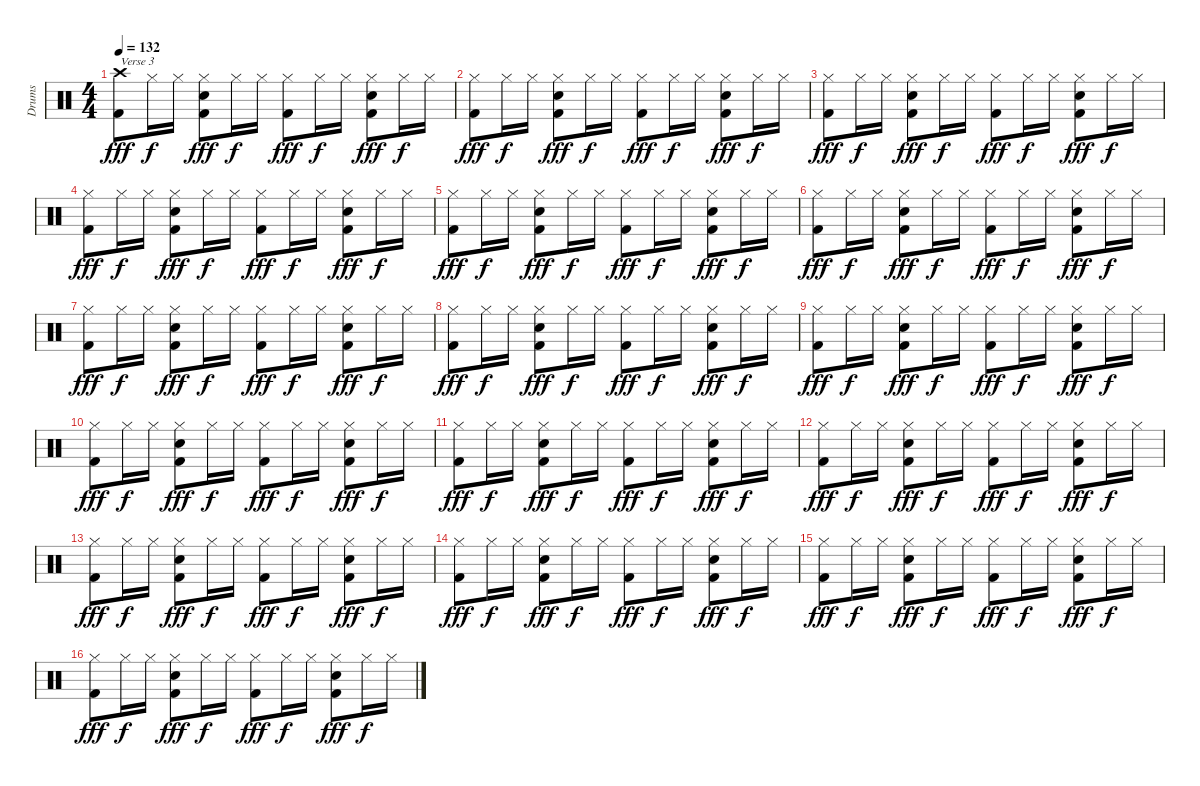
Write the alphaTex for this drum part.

\track ("Drums" "Drums") {instrument percussion}
\staff {score}
\articulation defaults
\ts (4 4)
\tempo 132
\clef neutral
\ks c
("Crash high (hit)" "Kick (hit) 2").8{txt "Verse 3" dy fff} "Hi-Hat (closed)".16{dy f} "Hi-Hat (closed)".16 ("Hi-Hat (closed)" "Snare (hit) 2" "Kick (hit) 2").8{dy fff} "Hi-Hat (closed)".16{dy f} "Hi-Hat (closed)".16 ("Hi-Hat (closed)" "Kick (hit) 2").8{dy fff} "Hi-Hat (closed)".16{dy f} "Hi-Hat (closed)".16 ("Hi-Hat (closed)" "Snare (hit) 2" "Kick (hit) 2").8{dy fff} "Hi-Hat (closed)".16{dy f} "Hi-Hat (closed)".16 |
("Hi-Hat (closed)" "Kick (hit) 2").8{dy fff} "Hi-Hat (closed)".16{dy f} "Hi-Hat (closed)".16 ("Hi-Hat (closed)" "Snare (hit) 2" "Kick (hit) 2").8{dy fff} "Hi-Hat (closed)".16{dy f} "Hi-Hat (closed)".16 ("Hi-Hat (closed)" "Kick (hit) 2").8{dy fff} "Hi-Hat (closed)".16{dy f} "Hi-Hat (closed)".16 ("Hi-Hat (closed)" "Snare (hit) 2" "Kick (hit) 2").8{dy fff} "Hi-Hat (closed)".16{dy f} "Hi-Hat (closed)".16 |
("Hi-Hat (closed)" "Kick (hit) 2").8{dy fff} "Hi-Hat (closed)".16{dy f} "Hi-Hat (closed)".16 ("Hi-Hat (closed)" "Snare (hit) 2" "Kick (hit) 2").8{dy fff} "Hi-Hat (closed)".16{dy f} "Hi-Hat (closed)".16 ("Hi-Hat (closed)" "Kick (hit) 2").8{dy fff} "Hi-Hat (closed)".16{dy f} "Hi-Hat (closed)".16 ("Hi-Hat (closed)" "Snare (hit) 2" "Kick (hit) 2").8{dy fff} "Hi-Hat (closed)".16{dy f} "Hi-Hat (closed)".16 |
("Hi-Hat (closed)" "Kick (hit) 2").8{dy fff} "Hi-Hat (closed)".16{dy f} "Hi-Hat (closed)".16 ("Hi-Hat (closed)" "Snare (hit) 2" "Kick (hit) 2").8{dy fff} "Hi-Hat (closed)".16{dy f} "Hi-Hat (closed)".16 ("Hi-Hat (closed)" "Kick (hit) 2").8{dy fff} "Hi-Hat (closed)".16{dy f} "Hi-Hat (closed)".16 ("Hi-Hat (closed)" "Snare (hit) 2" "Kick (hit) 2").8{dy fff} "Hi-Hat (closed)".16{dy f} "Hi-Hat (closed)".16 |
("Hi-Hat (closed)" "Kick (hit) 2").8{dy fff} "Hi-Hat (closed)".16{dy f} "Hi-Hat (closed)".16 ("Hi-Hat (closed)" "Snare (hit) 2" "Kick (hit) 2").8{dy fff} "Hi-Hat (closed)".16{dy f} "Hi-Hat (closed)".16 ("Hi-Hat (closed)" "Kick (hit) 2").8{dy fff} "Hi-Hat (closed)".16{dy f} "Hi-Hat (closed)".16 ("Hi-Hat (closed)" "Snare (hit) 2" "Kick (hit) 2").8{dy fff} "Hi-Hat (closed)".16{dy f} "Hi-Hat (closed)".16 |
("Hi-Hat (closed)" "Kick (hit) 2").8{dy fff} "Hi-Hat (closed)".16{dy f} "Hi-Hat (closed)".16 ("Hi-Hat (closed)" "Snare (hit) 2" "Kick (hit) 2").8{dy fff} "Hi-Hat (closed)".16{dy f} "Hi-Hat (closed)".16 ("Hi-Hat (closed)" "Kick (hit) 2").8{dy fff} "Hi-Hat (closed)".16{dy f} "Hi-Hat (closed)".16 ("Hi-Hat (closed)" "Snare (hit) 2" "Kick (hit) 2").8{dy fff} "Hi-Hat (closed)".16{dy f} "Hi-Hat (closed)".16 |
("Hi-Hat (closed)" "Kick (hit) 2").8{dy fff} "Hi-Hat (closed)".16{dy f} "Hi-Hat (closed)".16 ("Hi-Hat (closed)" "Snare (hit) 2" "Kick (hit) 2").8{dy fff} "Hi-Hat (closed)".16{dy f} "Hi-Hat (closed)".16 ("Hi-Hat (closed)" "Kick (hit) 2").8{dy fff} "Hi-Hat (closed)".16{dy f} "Hi-Hat (closed)".16 ("Hi-Hat (closed)" "Snare (hit) 2" "Kick (hit) 2").8{dy fff} "Hi-Hat (closed)".16{dy f} "Hi-Hat (closed)".16 |
("Hi-Hat (closed)" "Kick (hit) 2").8{dy fff} "Hi-Hat (closed)".16{dy f} "Hi-Hat (closed)".16 ("Hi-Hat (closed)" "Snare (hit) 2" "Kick (hit) 2").8{dy fff} "Hi-Hat (closed)".16{dy f} "Hi-Hat (closed)".16 ("Hi-Hat (closed)" "Kick (hit) 2").8{dy fff} "Hi-Hat (closed)".16{dy f} "Hi-Hat (closed)".16 ("Hi-Hat (closed)" "Snare (hit) 2" "Kick (hit) 2").8{dy fff} "Hi-Hat (closed)".16{dy f} "Hi-Hat (closed)".16 |
("Hi-Hat (closed)" "Kick (hit) 2").8{dy fff} "Hi-Hat (closed)".16{dy f} "Hi-Hat (closed)".16 ("Hi-Hat (closed)" "Snare (hit) 2" "Kick (hit) 2").8{dy fff} "Hi-Hat (closed)".16{dy f} "Hi-Hat (closed)".16 ("Hi-Hat (closed)" "Kick (hit) 2").8{dy fff} "Hi-Hat (closed)".16{dy f} "Hi-Hat (closed)".16 ("Hi-Hat (closed)" "Snare (hit) 2" "Kick (hit) 2").8{dy fff} "Hi-Hat (closed)".16{dy f} "Hi-Hat (closed)".16 |
("Hi-Hat (closed)" "Kick (hit) 2").8{dy fff} "Hi-Hat (closed)".16{dy f} "Hi-Hat (closed)".16 ("Hi-Hat (closed)" "Snare (hit) 2" "Kick (hit) 2").8{dy fff} "Hi-Hat (closed)".16{dy f} "Hi-Hat (closed)".16 ("Hi-Hat (closed)" "Kick (hit) 2").8{dy fff} "Hi-Hat (closed)".16{dy f} "Hi-Hat (closed)".16 ("Hi-Hat (closed)" "Snare (hit) 2" "Kick (hit) 2").8{dy fff} "Hi-Hat (closed)".16{dy f} "Hi-Hat (closed)".16 |
("Hi-Hat (closed)" "Kick (hit) 2").8{dy fff} "Hi-Hat (closed)".16{dy f} "Hi-Hat (closed)".16 ("Hi-Hat (closed)" "Snare (hit) 2" "Kick (hit) 2").8{dy fff} "Hi-Hat (closed)".16{dy f} "Hi-Hat (closed)".16 ("Hi-Hat (closed)" "Kick (hit) 2").8{dy fff} "Hi-Hat (closed)".16{dy f} "Hi-Hat (closed)".16 ("Hi-Hat (closed)" "Snare (hit) 2" "Kick (hit) 2").8{dy fff} "Hi-Hat (closed)".16{dy f} "Hi-Hat (closed)".16 |
("Hi-Hat (closed)" "Kick (hit) 2").8{dy fff} "Hi-Hat (closed)".16{dy f} "Hi-Hat (closed)".16 ("Hi-Hat (closed)" "Snare (hit) 2" "Kick (hit) 2").8{dy fff} "Hi-Hat (closed)".16{dy f} "Hi-Hat (closed)".16 ("Hi-Hat (closed)" "Kick (hit) 2").8{dy fff} "Hi-Hat (closed)".16{dy f} "Hi-Hat (closed)".16 ("Hi-Hat (closed)" "Snare (hit) 2" "Kick (hit) 2").8{dy fff} "Hi-Hat (closed)".16{dy f} "Hi-Hat (closed)".16 |
("Hi-Hat (closed)" "Kick (hit) 2").8{dy fff} "Hi-Hat (closed)".16{dy f} "Hi-Hat (closed)".16 ("Hi-Hat (closed)" "Snare (hit) 2" "Kick (hit) 2").8{dy fff} "Hi-Hat (closed)".16{dy f} "Hi-Hat (closed)".16 ("Hi-Hat (closed)" "Kick (hit) 2").8{dy fff} "Hi-Hat (closed)".16{dy f} "Hi-Hat (closed)".16 ("Hi-Hat (closed)" "Snare (hit) 2" "Kick (hit) 2").8{dy fff} "Hi-Hat (closed)".16{dy f} "Hi-Hat (closed)".16 |
("Hi-Hat (closed)" "Kick (hit) 2").8{dy fff} "Hi-Hat (closed)".16{dy f} "Hi-Hat (closed)".16 ("Hi-Hat (closed)" "Snare (hit) 2" "Kick (hit) 2").8{dy fff} "Hi-Hat (closed)".16{dy f} "Hi-Hat (closed)".16 ("Hi-Hat (closed)" "Kick (hit) 2").8{dy fff} "Hi-Hat (closed)".16{dy f} "Hi-Hat (closed)".16 ("Hi-Hat (closed)" "Snare (hit) 2" "Kick (hit) 2").8{dy fff} "Hi-Hat (closed)".16{dy f} "Hi-Hat (closed)".16 |
("Hi-Hat (closed)" "Kick (hit) 2").8{dy fff} "Hi-Hat (closed)".16{dy f} "Hi-Hat (closed)".16 ("Hi-Hat (closed)" "Snare (hit) 2" "Kick (hit) 2").8{dy fff} "Hi-Hat (closed)".16{dy f} "Hi-Hat (closed)".16 ("Hi-Hat (closed)" "Kick (hit) 2").8{dy fff} "Hi-Hat (closed)".16{dy f} "Hi-Hat (closed)".16 ("Hi-Hat (closed)" "Snare (hit) 2" "Kick (hit) 2").8{dy fff} "Hi-Hat (closed)".16{dy f} "Hi-Hat (closed)".16 |
("Hi-Hat (closed)" "Kick (hit) 2").8{dy fff} "Hi-Hat (closed)".16{dy f} "Hi-Hat (closed)".16 ("Hi-Hat (closed)" "Snare (hit) 2" "Kick (hit) 2").8{dy fff} "Hi-Hat (closed)".16{dy f} "Hi-Hat (closed)".16 ("Hi-Hat (closed)" "Kick (hit) 2").8{dy fff} "Hi-Hat (closed)".16{dy f} "Hi-Hat (closed)".16 ("Hi-Hat (closed)" "Snare (hit) 2" "Kick (hit) 2").8{dy fff} "Hi-Hat (closed)".16{dy f} "Hi-Hat (closed)".16
